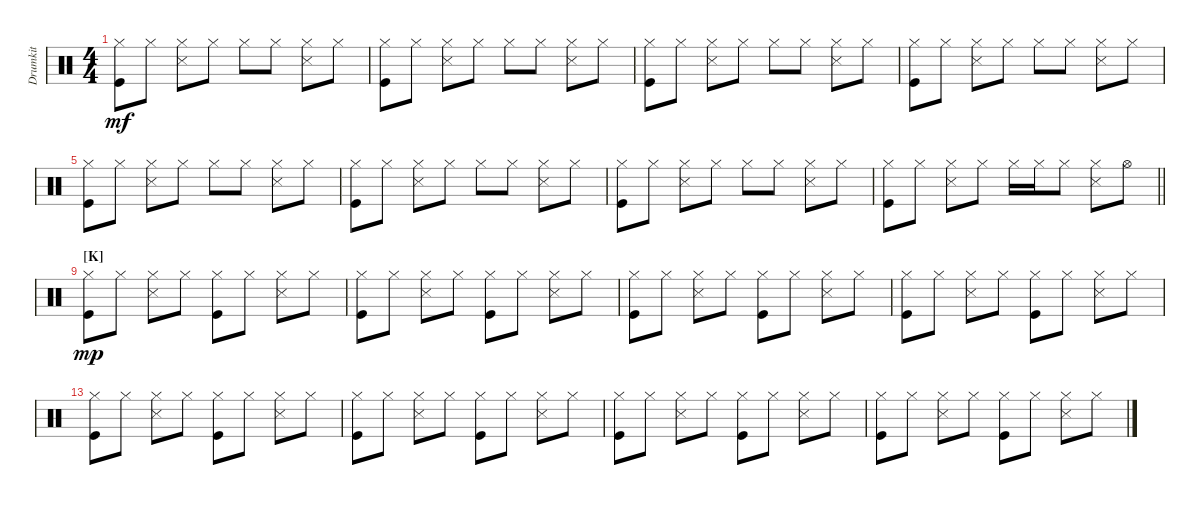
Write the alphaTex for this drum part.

\bracketExtendMode groupsimilarinstruments
\multiTrackTrackNamePolicy hidden
\firstSystemTrackNameMode fullname
\otherSystemsTrackNameMode fullname
\otherSystemsTrackNameOrientation horizontal
\defaultBarNumberDisplay FirstOfSystem
\track ("Drumkit" "Drums") {multiBarRest instrument percussion}
\staff {score}
\articulation defaults
\ts (4 4)
\tempo (150 hide)
\clef neutral
\ks c
("Hi-Hat (closed)" "Kick (hit)").8{dy mf} "Hi-Hat (closed)".8 ("Hi-Hat (closed)" "Snare (side stick) 3").8 "Hi-Hat (closed)".8 "Hi-Hat (closed)".8 "Hi-Hat (closed)".8 ("Hi-Hat (closed)" "Snare (side stick) 3").8 "Hi-Hat (closed)".8 |
("Hi-Hat (closed)" "Kick (hit)").8 "Hi-Hat (closed)".8 ("Hi-Hat (closed)" "Snare (side stick) 3").8 "Hi-Hat (closed)".8 "Hi-Hat (closed)".8 "Hi-Hat (closed)".8 ("Hi-Hat (closed)" "Snare (side stick) 3").8 "Hi-Hat (closed)".8 |
("Hi-Hat (closed)" "Kick (hit)").8 "Hi-Hat (closed)".8 ("Hi-Hat (closed)" "Snare (side stick) 3").8 "Hi-Hat (closed)".8 "Hi-Hat (closed)".8 "Hi-Hat (closed)".8 ("Hi-Hat (closed)" "Snare (side stick) 3").8 "Hi-Hat (closed)".8 |
("Hi-Hat (closed)" "Kick (hit)").8 "Hi-Hat (closed)".8 ("Hi-Hat (closed)" "Snare (side stick) 3").8 "Hi-Hat (closed)".8 "Hi-Hat (closed)".8 "Hi-Hat (closed)".8 ("Hi-Hat (closed)" "Snare (side stick) 3").8 "Hi-Hat (closed)".8 |
("Hi-Hat (closed)" "Kick (hit)").8 "Hi-Hat (closed)".8 ("Hi-Hat (closed)" "Snare (side stick) 3").8 "Hi-Hat (closed)".8 "Hi-Hat (closed)".8 "Hi-Hat (closed)".8 ("Hi-Hat (closed)" "Snare (side stick) 3").8 "Hi-Hat (closed)".8 |
("Hi-Hat (closed)" "Kick (hit)").8 "Hi-Hat (closed)".8 ("Hi-Hat (closed)" "Snare (side stick) 3").8 "Hi-Hat (closed)".8 "Hi-Hat (closed)".8 "Hi-Hat (closed)".8 ("Hi-Hat (closed)" "Snare (side stick) 3").8 "Hi-Hat (closed)".8 |
("Hi-Hat (closed)" "Kick (hit)").8 "Hi-Hat (closed)".8 ("Hi-Hat (closed)" "Snare (side stick) 3").8 "Hi-Hat (closed)".8 "Hi-Hat (closed)".8 "Hi-Hat (closed)".8 ("Hi-Hat (closed)" "Snare (side stick) 3").8 "Hi-Hat (closed)".8 |
\barLineRight lightlight
("Hi-Hat (closed)" "Kick (hit)").8 "Hi-Hat (closed)".8 ("Hi-Hat (closed)" "Snare (side stick) 3").8 "Hi-Hat (closed)".8 "Hi-Hat (closed)".16 "Hi-Hat (closed)".16 "Hi-Hat (closed)".8 ("Hi-Hat (closed)" "Snare (side stick) 3").8 "Hi-Hat (open)".8 |
\section ("K" "")
("Hi-Hat (closed)" "Kick (hit)").8{dy mp} "Hi-Hat (closed)".8 ("Hi-Hat (closed)" "Snare (side stick) 3").8 "Hi-Hat (closed)".8 ("Hi-Hat (closed)" "Kick (hit)").8 "Hi-Hat (closed)".8 ("Hi-Hat (closed)" "Snare (side stick) 3").8 "Hi-Hat (closed)".8 |
("Hi-Hat (closed)" "Kick (hit)").8 "Hi-Hat (closed)".8 ("Hi-Hat (closed)" "Snare (side stick) 3").8 "Hi-Hat (closed)".8 ("Hi-Hat (closed)" "Kick (hit)").8 "Hi-Hat (closed)".8 ("Hi-Hat (closed)" "Snare (side stick) 3").8 "Hi-Hat (closed)".8 |
("Hi-Hat (closed)" "Kick (hit)").8 "Hi-Hat (closed)".8 ("Hi-Hat (closed)" "Snare (side stick) 3").8 "Hi-Hat (closed)".8 ("Hi-Hat (closed)" "Kick (hit)").8 "Hi-Hat (closed)".8 ("Hi-Hat (closed)" "Snare (side stick) 3").8 "Hi-Hat (closed)".8 |
("Hi-Hat (closed)" "Kick (hit)").8 "Hi-Hat (closed)".8 ("Hi-Hat (closed)" "Snare (side stick) 3").8 "Hi-Hat (closed)".8 ("Hi-Hat (closed)" "Kick (hit)").8 "Hi-Hat (closed)".8 ("Hi-Hat (closed)" "Snare (side stick) 3").8 "Hi-Hat (closed)".8 |
("Hi-Hat (closed)" "Kick (hit)").8 "Hi-Hat (closed)".8 ("Hi-Hat (closed)" "Snare (side stick) 3").8 "Hi-Hat (closed)".8 ("Hi-Hat (closed)" "Kick (hit)").8 "Hi-Hat (closed)".8 ("Hi-Hat (closed)" "Snare (side stick) 3").8 "Hi-Hat (closed)".8 |
("Hi-Hat (closed)" "Kick (hit)").8 "Hi-Hat (closed)".8 ("Hi-Hat (closed)" "Snare (side stick) 3").8 "Hi-Hat (closed)".8 ("Hi-Hat (closed)" "Kick (hit)").8 "Hi-Hat (closed)".8 ("Hi-Hat (closed)" "Snare (side stick) 3").8 "Hi-Hat (closed)".8 |
("Hi-Hat (closed)" "Kick (hit)").8 "Hi-Hat (closed)".8 ("Hi-Hat (closed)" "Snare (side stick) 3").8 "Hi-Hat (closed)".8 ("Hi-Hat (closed)" "Kick (hit)").8 "Hi-Hat (closed)".8 ("Hi-Hat (closed)" "Snare (side stick) 3").8 "Hi-Hat (closed)".8 |
("Hi-Hat (closed)" "Kick (hit)").8 "Hi-Hat (closed)".8 ("Hi-Hat (closed)" "Snare (side stick) 3").8 "Hi-Hat (closed)".8 ("Hi-Hat (closed)" "Kick (hit)").8 "Hi-Hat (closed)".8 ("Hi-Hat (closed)" "Snare (side stick) 3").8 "Hi-Hat (closed)".8
